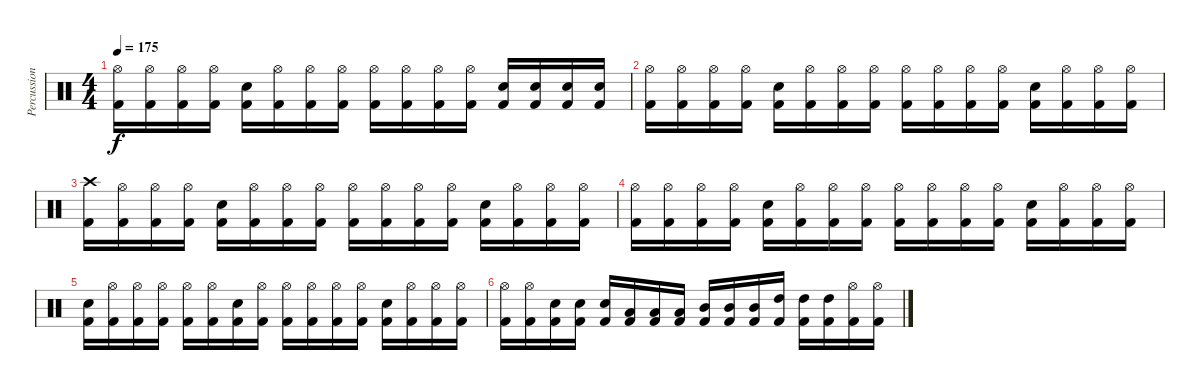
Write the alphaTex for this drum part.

\track ("Percussion" "Percussion") {instrument percussion}
\staff {score}
\articulation defaults
\ts (4 4)
\tempo 175
\clef neutral
\ks c
("Kick (hit) 2" "Hi-Hat (open)").16{dy f} ("Kick (hit) 2" "Hi-Hat (open)").16 ("Kick (hit) 2" "Hi-Hat (open)").16 ("Kick (hit) 2" "Hi-Hat (open)").16 ("Kick (hit) 2" "Snare (hit) 2").16 ("Kick (hit) 2" "Hi-Hat (open)").16 ("Kick (hit) 2" "Hi-Hat (open)").16 ("Kick (hit) 2" "Hi-Hat (open)").16 ("Kick (hit) 2" "Hi-Hat (open)").16 ("Kick (hit) 2" "Hi-Hat (open)").16 ("Kick (hit) 2" "Hi-Hat (open)").16 ("Kick (hit) 2" "Hi-Hat (open)").16 ("Kick (hit) 2" "Snare (hit) 2").16 ("Kick (hit) 2" "Snare (hit) 2").16 ("Kick (hit) 2" "Snare (hit) 2").16 ("Kick (hit) 2" "Snare (hit) 2").16 |
("Kick (hit) 2" "Hi-Hat (open)").16 ("Kick (hit) 2" "Hi-Hat (open)").16 ("Kick (hit) 2" "Hi-Hat (open)").16 ("Kick (hit) 2" "Hi-Hat (open)").16 ("Kick (hit) 2" "Snare (hit) 2").16 ("Kick (hit) 2" "Hi-Hat (open)").16 ("Kick (hit) 2" "Hi-Hat (open)").16 ("Kick (hit) 2" "Hi-Hat (open)").16 ("Kick (hit) 2" "Hi-Hat (open)").16 ("Kick (hit) 2" "Hi-Hat (open)").16 ("Kick (hit) 2" "Hi-Hat (open)").16 ("Kick (hit) 2" "Hi-Hat (open)").16 ("Kick (hit) 2" "Snare (hit) 2").16 ("Kick (hit) 2" "Hi-Hat (open)").16 ("Kick (hit) 2" "Hi-Hat (open)").16 ("Kick (hit) 2" "Hi-Hat (open)").16 |
("Kick (hit) 2" "Crash high (hit)").16 ("Kick (hit) 2" "Hi-Hat (open)").16 ("Kick (hit) 2" "Hi-Hat (open)").16 ("Kick (hit) 2" "Hi-Hat (open)").16 ("Kick (hit) 2" "Snare (hit) 2").16 ("Kick (hit) 2" "Hi-Hat (open)").16 ("Kick (hit) 2" "Hi-Hat (open)").16 ("Kick (hit) 2" "Hi-Hat (open)").16 ("Kick (hit) 2" "Hi-Hat (open)").16 ("Kick (hit) 2" "Hi-Hat (open)").16 ("Kick (hit) 2" "Hi-Hat (open)").16 ("Kick (hit) 2" "Hi-Hat (open)").16 ("Kick (hit) 2" "Snare (hit) 2").16 ("Kick (hit) 2" "Hi-Hat (open)").16 ("Kick (hit) 2" "Hi-Hat (open)").16 ("Kick (hit) 2" "Hi-Hat (open)").16 |
("Kick (hit) 2" "Hi-Hat (open)").16 ("Kick (hit) 2" "Hi-Hat (open)").16 ("Kick (hit) 2" "Hi-Hat (open)").16 ("Kick (hit) 2" "Hi-Hat (open)").16 ("Kick (hit) 2" "Snare (hit) 2").16 ("Kick (hit) 2" "Hi-Hat (open)").16 ("Kick (hit) 2" "Hi-Hat (open)").16 ("Kick (hit) 2" "Hi-Hat (open)").16 ("Kick (hit) 2" "Hi-Hat (open)").16 ("Kick (hit) 2" "Hi-Hat (open)").16 ("Kick (hit) 2" "Hi-Hat (open)").16 ("Kick (hit) 2" "Hi-Hat (open)").16 ("Kick (hit) 2" "Snare (hit) 2").16 ("Kick (hit) 2" "Hi-Hat (open)").16 ("Kick (hit) 2" "Hi-Hat (open)").16 ("Kick (hit) 2" "Hi-Hat (open)").16 |
("Kick (hit) 2" "Snare (hit) 2").16 ("Kick (hit) 2" "Hi-Hat (open)").16 ("Kick (hit) 2" "Hi-Hat (open)").16 ("Kick (hit) 2" "Hi-Hat (open)").16 ("Kick (hit) 2" "Hi-Hat (open)").16 ("Kick (hit) 2" "Hi-Hat (open)").16 ("Kick (hit) 2" "Snare (hit) 2").16 ("Kick (hit) 2" "Hi-Hat (open)").16 ("Kick (hit) 2" "Hi-Hat (open)").16 ("Kick (hit) 2" "Hi-Hat (open)").16 ("Kick (hit) 2" "Hi-Hat (open)").16 ("Kick (hit) 2" "Hi-Hat (open)").16 ("Kick (hit) 2" "Snare (hit) 2").16 ("Kick (hit) 2" "Hi-Hat (open)").16 ("Kick (hit) 2" "Hi-Hat (open)").16 ("Kick (hit) 2" "Hi-Hat (open)").16 |
("Kick (hit) 2" "Hi-Hat (open)").16 ("Kick (hit) 2" "Hi-Hat (open)").16 ("Kick (hit) 2" "Snare (hit) 2").16 ("Kick (hit) 2" "Snare (hit) 2").16 ("Kick (hit) 2" "Snare (hit) 2").16 ("Kick (hit) 2" "Low Tom (hit)").16 ("Kick (hit) 2" "Low Tom (hit)").16 ("Kick (hit) 2" "Low Tom (hit)").16 ("Kick (hit) 2" "Mid Tom (hit)").16 ("Kick (hit) 2" "Mid Tom (hit)").16 ("Kick (hit) 2" "Mid Tom (hit)").16 ("Kick (hit) 2" "High Tom (hit)").16 ("Kick (hit) 2" "High Tom (hit)").16 ("Kick (hit) 2" "High Tom (hit)").16 ("Kick (hit) 2" "Hi-Hat (open)").16 ("Kick (hit) 2" "Hi-Hat (open)").16
